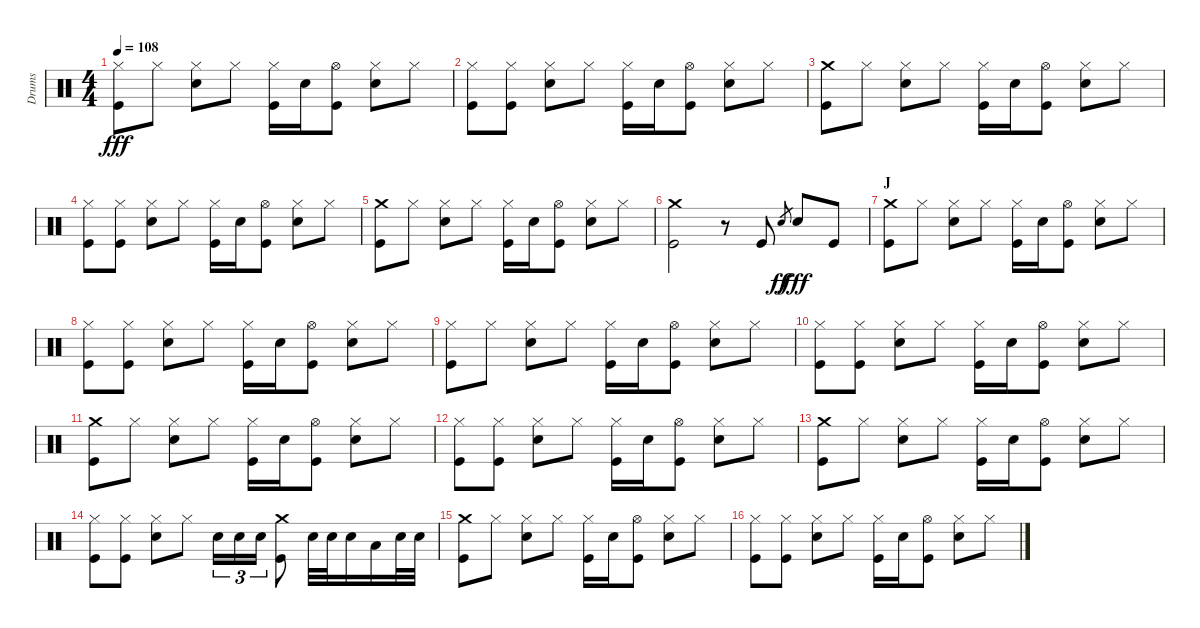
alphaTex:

\track ("Drums" "Drums") {instrument percussion}
\staff {score}
\articulation defaults
\ts (4 4)
\tempo 108
\clef neutral
\ks c
("Hi-Hat (closed)" "Kick (hit)").8{dy fff} "Hi-Hat (closed)".8 ("Hi-Hat (closed)" "Snare (hit) 2").8 "Hi-Hat (closed)".8 ("Hi-Hat (closed)" "Kick (hit)").16 "Snare (hit) 2".16 ("Hi-Hat (open)" "Kick (hit)").8 ("Hi-Hat (closed)" "Snare (hit) 2").8 "Hi-Hat (closed)".8 |
("Hi-Hat (closed)" "Kick (hit)").8 ("Hi-Hat (closed)" "Kick (hit)").8 ("Hi-Hat (closed)" "Snare (hit) 2").8 "Hi-Hat (closed)".8 ("Hi-Hat (closed)" "Kick (hit)").16 "Snare (hit) 2".16 ("Hi-Hat (open)" "Kick (hit)").8 ("Hi-Hat (closed)" "Snare (hit) 2").8 "Hi-Hat (closed)".8 |
("Crash medium (hit)" "Kick (hit)").8 "Hi-Hat (closed)".8 ("Hi-Hat (closed)" "Snare (hit) 2").8 "Hi-Hat (closed)".8 ("Hi-Hat (closed)" "Kick (hit)").16 "Snare (hit) 2".16 ("Hi-Hat (open)" "Kick (hit)").8 ("Hi-Hat (closed)" "Snare (hit) 2").8 "Hi-Hat (closed)".8 |
("Hi-Hat (closed)" "Kick (hit)").8 ("Hi-Hat (closed)" "Kick (hit)").8 ("Hi-Hat (closed)" "Snare (hit) 2").8 "Hi-Hat (closed)".8 ("Hi-Hat (closed)" "Kick (hit)").16 "Snare (hit) 2".16 ("Hi-Hat (open)" "Kick (hit)").8 ("Hi-Hat (closed)" "Snare (hit) 2").8 "Hi-Hat (closed)".8 |
("Crash medium (hit)" "Kick (hit)").8 "Hi-Hat (closed)".8 ("Hi-Hat (closed)" "Snare (hit) 2").8 "Hi-Hat (closed)".8 ("Hi-Hat (closed)" "Kick (hit)").16 "Snare (hit) 2".16 ("Hi-Hat (open)" "Kick (hit)").8 ("Hi-Hat (closed)" "Snare (hit) 2").8 "Hi-Hat (closed)".8 |
("Crash medium (hit)" "Kick (hit)").2 r.8 "Kick (hit)".8 "Snare (hit)".8{gr dy ff} "Snare (hit) 2".8{dy fff} "Kick (hit)".8 |
\section ("" "J")
("Crash medium (hit)" "Kick (hit)").8 "Hi-Hat (closed)".8 ("Hi-Hat (closed)" "Snare (hit) 2").8 "Hi-Hat (closed)".8 ("Hi-Hat (closed)" "Kick (hit)").16 "Snare (hit) 2".16 ("Hi-Hat (open)" "Kick (hit)").8 ("Hi-Hat (closed)" "Snare (hit) 2").8 "Hi-Hat (closed)".8 |
("Hi-Hat (closed)" "Kick (hit)").8 ("Hi-Hat (closed)" "Kick (hit)").8 ("Hi-Hat (closed)" "Snare (hit) 2").8 "Hi-Hat (closed)".8 ("Hi-Hat (closed)" "Kick (hit)").16 "Snare (hit) 2".16 ("Hi-Hat (open)" "Kick (hit)").8 ("Hi-Hat (closed)" "Snare (hit) 2").8 "Hi-Hat (closed)".8 |
("Hi-Hat (closed)" "Kick (hit)").8 "Hi-Hat (closed)".8 ("Hi-Hat (closed)" "Snare (hit) 2").8 "Hi-Hat (closed)".8 ("Hi-Hat (closed)" "Kick (hit)").16 "Snare (hit) 2".16 ("Hi-Hat (open)" "Kick (hit)").8 ("Hi-Hat (closed)" "Snare (hit) 2").8 "Hi-Hat (closed)".8 |
("Hi-Hat (closed)" "Kick (hit)").8 ("Hi-Hat (closed)" "Kick (hit)").8 ("Hi-Hat (closed)" "Snare (hit) 2").8 "Hi-Hat (closed)".8 ("Hi-Hat (closed)" "Kick (hit)").16 "Snare (hit) 2".16 ("Hi-Hat (open)" "Kick (hit)").8 ("Hi-Hat (closed)" "Snare (hit) 2").8 "Hi-Hat (closed)".8 |
("Crash medium (hit)" "Kick (hit)").8 "Hi-Hat (closed)".8 ("Hi-Hat (closed)" "Snare (hit) 2").8 "Hi-Hat (closed)".8 ("Hi-Hat (closed)" "Kick (hit)").16 "Snare (hit) 2".16 ("Hi-Hat (open)" "Kick (hit)").8 ("Hi-Hat (closed)" "Snare (hit) 2").8 "Hi-Hat (closed)".8 |
("Hi-Hat (closed)" "Kick (hit)").8 ("Hi-Hat (closed)" "Kick (hit)").8 ("Hi-Hat (closed)" "Snare (hit) 2").8 "Hi-Hat (closed)".8 ("Hi-Hat (closed)" "Kick (hit)").16 "Snare (hit) 2".16 ("Hi-Hat (open)" "Kick (hit)").8 ("Hi-Hat (closed)" "Snare (hit) 2").8 "Hi-Hat (closed)".8 |
("Crash medium (hit)" "Kick (hit)").8 "Hi-Hat (closed)".8 ("Hi-Hat (closed)" "Snare (hit) 2").8 "Hi-Hat (closed)".8 ("Hi-Hat (closed)" "Kick (hit)").16 "Snare (hit) 2".16 ("Hi-Hat (open)" "Kick (hit)").8 ("Hi-Hat (closed)" "Snare (hit) 2").8 "Hi-Hat (closed)".8 |
("Hi-Hat (closed)" "Kick (hit)").8 ("Hi-Hat (closed)" "Kick (hit)").8 ("Hi-Hat (closed)" "Snare (hit) 2").8 "Hi-Hat (closed)".8 "Snare (hit) 2".16{tu (3 2)} "Snare (hit) 2".16{tu (3 2)} "Snare (hit) 2".16{tu (3 2)} ("Crash medium (hit)" "Kick (hit)").8 "Snare (hit) 2".32 "Snare (hit) 2".32 "Snare (hit) 2".16 "Low Tom (hit)".16 "Snare (hit) 2".32 "Snare (hit) 2".32 |
("Crash medium (hit)" "Kick (hit)").8 "Hi-Hat (closed)".8 ("Hi-Hat (closed)" "Snare (hit) 2").8 "Hi-Hat (closed)".8 ("Hi-Hat (closed)" "Kick (hit)").16 "Snare (hit) 2".16 ("Hi-Hat (open)" "Kick (hit)").8 ("Hi-Hat (closed)" "Snare (hit) 2").8 "Hi-Hat (closed)".8 |
("Hi-Hat (closed)" "Kick (hit)").8 ("Hi-Hat (closed)" "Kick (hit)").8 ("Hi-Hat (closed)" "Snare (hit) 2").8 "Hi-Hat (closed)".8 ("Hi-Hat (closed)" "Kick (hit)").16 "Snare (hit) 2".16 ("Hi-Hat (open)" "Kick (hit)").8 ("Hi-Hat (closed)" "Snare (hit) 2").8 "Hi-Hat (closed)".8
